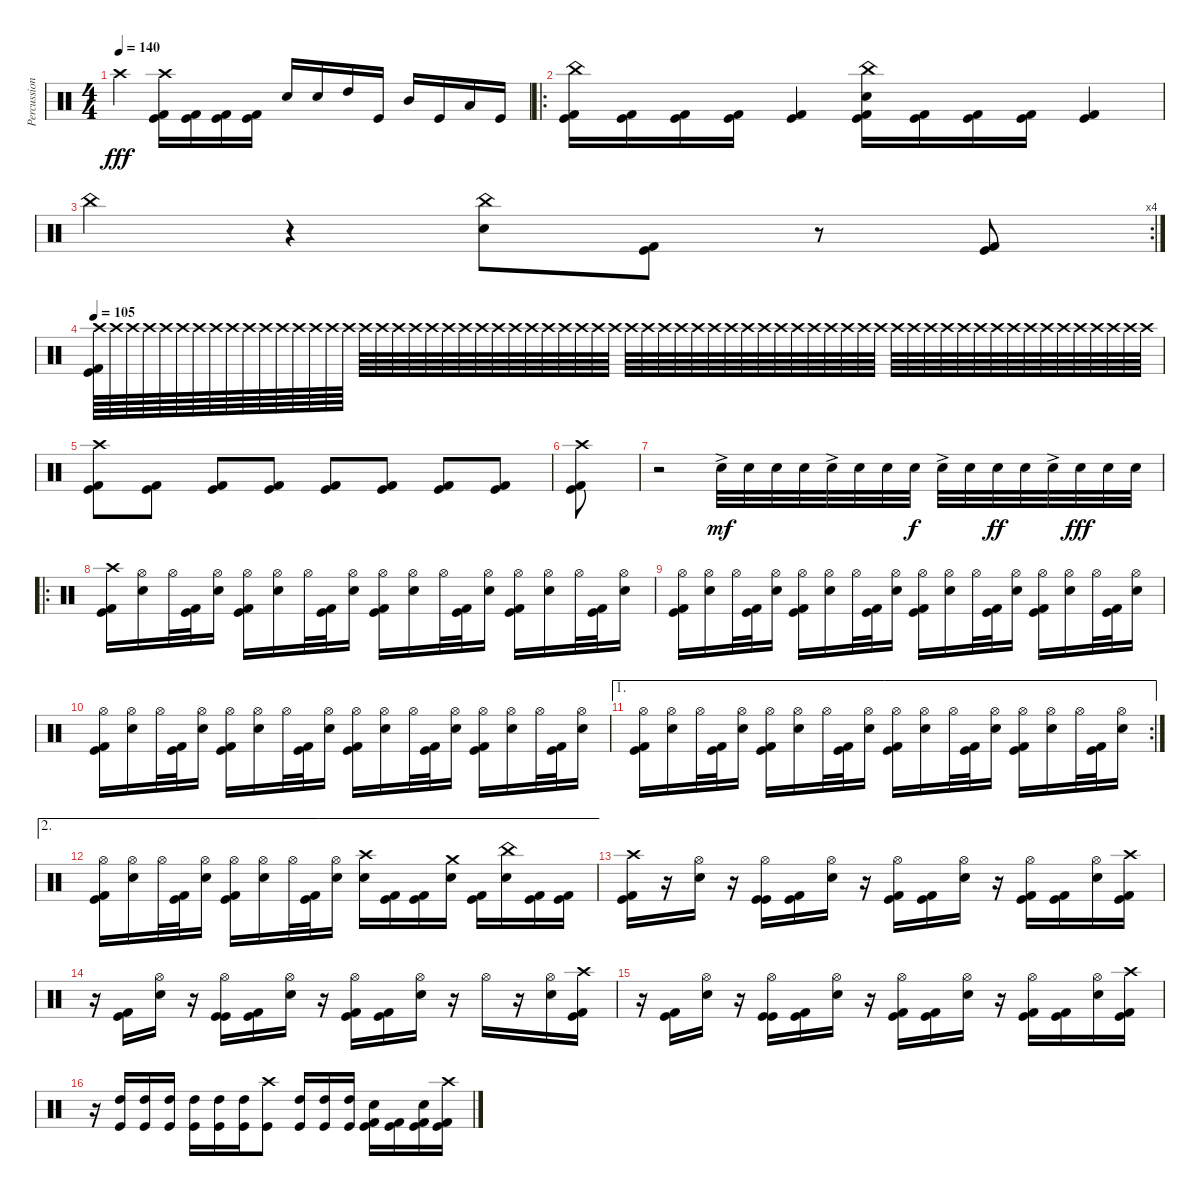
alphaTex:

\track ("Percussion" "Percussion") {instrument percussion}
\staff {score}
\articulation defaults
\ts (4 4)
\tempo 140
\clef neutral
\ks c "Crash high (hit)".4{dy fff}
("Crash high (hit)" "Kick (hit) 2" "Kick (hit)").16 ("Kick (hit) 2" "Kick (hit)").16 ("Kick (hit) 2" "Kick (hit)").16 ("Kick (hit) 2" "Kick (hit)").16 "Electric Snare (hit)".16 "Electric Snare (hit)".16 "High Tom (hit)".16 "Kick (hit)".16 "Mid Tom (hit)".16 "Kick (hit)".16 "Low Tom (hit)".16 "Kick (hit)".16 |
\ro
("China (hit)" "Kick (hit)" "Kick (hit) 2").16 ("Kick (hit)" "Kick (hit) 2").16 ("Kick (hit)" "Kick (hit) 2").16 ("Kick (hit)" "Kick (hit) 2").16 ("Kick (hit)" "Kick (hit) 2").4 ("China (hit)" "Electric Snare (hit)" "Kick (hit)" "Kick (hit) 2").16 ("Kick (hit)" "Kick (hit) 2").16 ("Kick (hit)" "Kick (hit) 2").16 ("Kick (hit)" "Kick (hit) 2").16 ("Kick (hit)" "Kick (hit) 2").4 |
\rc 4 "China (hit)".4
r.4 ("China (hit)" "Electric Snare (hit)").8 ("Kick (hit) 2" "Kick (hit)").8 r.8 ("Kick (hit) 2" "Kick (hit)").8 |
\tempo 105
("Crash high (hit)" "Kick (hit) 2" "Kick (hit)").64 "Crash high (hit)".64 "Crash high (hit)".64 "Crash high (hit)".64 "Crash high (hit)".64 "Crash high (hit)".64 "Crash high (hit)".64 "Crash high (hit)".64 "Crash high (hit)".64 "Crash high (hit)".64 "Crash high (hit)".64 "Crash high (hit)".64 "Crash high (hit)".64 "Crash high (hit)".64 "Crash high (hit)".64 "Crash high (hit)".64 "Crash high (hit)".64 "Crash high (hit)".64 "Crash high (hit)".64 "Crash high (hit)".64 "Crash high (hit)".64 "Crash high (hit)".64 "Crash high (hit)".64 "Crash high (hit)".64 "Crash high (hit)".64 "Crash high (hit)".64 "Crash high (hit)".64 "Crash high (hit)".64 "Crash high (hit)".64 "Crash high (hit)".64 "Crash high (hit)".64 "Crash high (hit)".64 "Crash high (hit)".64 "Crash high (hit)".64 "Crash high (hit)".64 "Crash high (hit)".64 "Crash high (hit)".64 "Crash high (hit)".64 "Crash high (hit)".64 "Crash high (hit)".64 "Crash high (hit)".64 "Crash high (hit)".64 "Crash high (hit)".64 "Crash high (hit)".64 "Crash high (hit)".64 "Crash high (hit)".64 "Crash high (hit)".64 "Crash high (hit)".64 "Crash high (hit)".64 "Crash high (hit)".64 "Crash high (hit)".64 "Crash high (hit)".64 "Crash high (hit)".64 "Crash high (hit)".64 "Crash high (hit)".64 "Crash high (hit)".64 "Crash high (hit)".64 "Crash high (hit)".64 "Crash high (hit)".64 "Crash high (hit)".64 "Crash high (hit)".64 "Crash high (hit)".64 "Crash high (hit)".64 "Crash high (hit)".64 |
("Crash high (hit)" "Kick (hit)" "Kick (hit) 2").8 ("Kick (hit)" "Kick (hit) 2").8 ("Kick (hit)" "Kick (hit) 2").8 ("Kick (hit)" "Kick (hit) 2").8 ("Kick (hit)" "Kick (hit) 2").8 ("Kick (hit)" "Kick (hit) 2").8 ("Kick (hit)" "Kick (hit) 2").8 ("Kick (hit)" "Kick (hit) 2").8 |
("Crash high (hit)" "Kick (hit) 2" "Kick (hit)").8 |
r.2 "Electric Snare (hit)"{ac}.32{dy mf} "Electric Snare (hit)".32 "Electric Snare (hit)".32 "Electric Snare (hit)".32 "Electric Snare (hit)"{ac}.32 "Electric Snare (hit)".32 "Electric Snare (hit)".32 "Electric Snare (hit)".32{dy f} "Electric Snare (hit)"{ac}.32 "Electric Snare (hit)".32 "Electric Snare (hit)".32{dy ff} "Electric Snare (hit)".32 "Electric Snare (hit)"{ac}.32 "Electric Snare (hit)".32{dy fff} "Electric Snare (hit)".32 "Electric Snare (hit)".32 |
\ro
("Crash high (hit)" "Kick (hit)" "Kick (hit) 2").16 ("Electric Snare (hit)" "Hi-Hat (open)").16 "Hi-Hat (open)".32 ("Kick (hit)" "Kick (hit) 2").32 ("Electric Snare (hit)" "Hi-Hat (open)").16 ("Hi-Hat (open)" "Kick (hit)" "Kick (hit) 2").16 ("Electric Snare (hit)" "Hi-Hat (open)").16 "Hi-Hat (open)".32 ("Kick (hit)" "Kick (hit) 2").32 ("Electric Snare (hit)" "Hi-Hat (open)").16 ("Hi-Hat (open)" "Kick (hit)" "Kick (hit) 2").16 ("Electric Snare (hit)" "Hi-Hat (open)").16 "Hi-Hat (open)".32 ("Kick (hit)" "Kick (hit) 2").32 ("Electric Snare (hit)" "Hi-Hat (open)").16 ("Hi-Hat (open)" "Kick (hit)" "Kick (hit) 2").16 ("Electric Snare (hit)" "Hi-Hat (open)").16 "Hi-Hat (open)".32 ("Kick (hit)" "Kick (hit) 2").32 ("Electric Snare (hit)" "Hi-Hat (open)").16 |
("Hi-Hat (open)" "Kick (hit)" "Kick (hit) 2").16 ("Electric Snare (hit)" "Hi-Hat (open)").16 "Hi-Hat (open)".32 ("Kick (hit)" "Kick (hit) 2").32 ("Electric Snare (hit)" "Hi-Hat (open)").16 ("Hi-Hat (open)" "Kick (hit)" "Kick (hit) 2").16 ("Electric Snare (hit)" "Hi-Hat (open)").16 "Hi-Hat (open)".32 ("Kick (hit)" "Kick (hit) 2").32 ("Electric Snare (hit)" "Hi-Hat (open)").16 ("Hi-Hat (open)" "Kick (hit)" "Kick (hit) 2").16 ("Electric Snare (hit)" "Hi-Hat (open)").16 "Hi-Hat (open)".32 ("Kick (hit)" "Kick (hit) 2").32 ("Electric Snare (hit)" "Hi-Hat (open)").16 ("Hi-Hat (open)" "Kick (hit)" "Kick (hit) 2").16 ("Electric Snare (hit)" "Hi-Hat (open)").16 "Hi-Hat (open)".32 ("Kick (hit)" "Kick (hit) 2").32 ("Electric Snare (hit)" "Hi-Hat (open)").16 |
("Hi-Hat (open)" "Kick (hit)" "Kick (hit) 2").16 ("Electric Snare (hit)" "Hi-Hat (open)").16 "Hi-Hat (open)".32 ("Kick (hit)" "Kick (hit) 2").32 ("Electric Snare (hit)" "Hi-Hat (open)").16 ("Hi-Hat (open)" "Kick (hit)" "Kick (hit) 2").16 ("Electric Snare (hit)" "Hi-Hat (open)").16 "Hi-Hat (open)".32 ("Kick (hit)" "Kick (hit) 2").32 ("Electric Snare (hit)" "Hi-Hat (open)").16 ("Hi-Hat (open)" "Kick (hit)" "Kick (hit) 2").16 ("Electric Snare (hit)" "Hi-Hat (open)").16 "Hi-Hat (open)".32 ("Kick (hit)" "Kick (hit) 2").32 ("Electric Snare (hit)" "Hi-Hat (open)").16 ("Hi-Hat (open)" "Kick (hit)" "Kick (hit) 2").16 ("Electric Snare (hit)" "Hi-Hat (open)").16 "Hi-Hat (open)".32 ("Kick (hit)" "Kick (hit) 2").32 ("Electric Snare (hit)" "Hi-Hat (open)").16 |
\ae 1
\rc 2
("Hi-Hat (open)" "Kick (hit)" "Kick (hit) 2").16 ("Electric Snare (hit)" "Hi-Hat (open)").16 "Hi-Hat (open)".32 ("Kick (hit)" "Kick (hit) 2").32 ("Electric Snare (hit)" "Hi-Hat (open)").16 ("Hi-Hat (open)" "Kick (hit)" "Kick (hit) 2").16 ("Electric Snare (hit)" "Hi-Hat (open)").16 "Hi-Hat (open)".32 ("Kick (hit)" "Kick (hit) 2").32 ("Electric Snare (hit)" "Hi-Hat (open)").16 ("Hi-Hat (open)" "Kick (hit)" "Kick (hit) 2").16 ("Electric Snare (hit)" "Hi-Hat (open)").16 "Hi-Hat (open)".32 ("Kick (hit)" "Kick (hit) 2").32 ("Electric Snare (hit)" "Hi-Hat (open)").16 ("Hi-Hat (open)" "Kick (hit)" "Kick (hit) 2").16 ("Electric Snare (hit)" "Hi-Hat (open)").16 "Hi-Hat (open)".32 ("Kick (hit)" "Kick (hit) 2").32 ("Electric Snare (hit)" "Hi-Hat (open)").16 |
\ae 2
("Hi-Hat (open)" "Kick (hit)" "Kick (hit) 2").16 ("Electric Snare (hit)" "Hi-Hat (open)").16 "Hi-Hat (open)".32 ("Kick (hit)" "Kick (hit) 2").32 ("Electric Snare (hit)" "Hi-Hat (open)").16 ("Hi-Hat (open)" "Kick (hit)" "Kick (hit) 2").16 ("Electric Snare (hit)" "Hi-Hat (open)").16 "Hi-Hat (open)".32 ("Kick (hit)" "Kick (hit) 2").32 ("Electric Snare (hit)" "Hi-Hat (open)").16 ("Crash high (hit)" "Electric Snare (hit)").16 ("Kick (hit) 2" "Kick (hit)").16 ("Kick (hit) 2" "Kick (hit)").16 ("Crash medium (hit)" "Electric Snare (hit)").16 ("Kick (hit) 2" "Kick (hit)").16 ("China (hit)" "Electric Snare (hit)").16 ("Kick (hit) 2" "Kick (hit)").16 ("Kick (hit) 2" "Kick (hit)").16 |
("Crash high (hit)" "Kick (hit)" "Kick (hit) 2").16 r.16 ("Hi-Hat (open)" "Electric Snare (hit)").16 r.16 ("Hi-Hat (open)" "Kick (hit)" "Kick (hit)").16 ("Kick (hit) 2" "Kick (hit)").16 ("Hi-Hat (open)" "Electric Snare (hit)").16 r.16 ("Hi-Hat (open)" "Kick (hit)" "Kick (hit) 2").16 ("Kick (hit)" "Kick (hit) 2").16 ("Hi-Hat (open)" "Electric Snare (hit)").16 r.16 ("Hi-Hat (open)" "Kick (hit)" "Kick (hit) 2").16 ("Kick (hit)" "Kick (hit) 2").16 ("Electric Snare (hit)" "Hi-Hat (open)").16 ("Crash high (hit)" "Kick (hit) 2" "Kick (hit)").16 |
r.16 ("Kick (hit) 2" "Kick (hit)").16 ("Hi-Hat (open)" "Electric Snare (hit)").16 r.16 ("Hi-Hat (open)" "Kick (hit)" "Kick (hit)").16 ("Kick (hit) 2" "Kick (hit)").16 ("Hi-Hat (open)" "Electric Snare (hit)").16 r.16 ("Hi-Hat (open)" "Kick (hit)" "Kick (hit) 2").16 ("Kick (hit)" "Kick (hit) 2").16 ("Hi-Hat (open)" "Electric Snare (hit)").16 r.16 "Hi-Hat (open)".16 r.16 ("Electric Snare (hit)" "Hi-Hat (open)").16 ("Crash high (hit)" "Kick (hit) 2" "Kick (hit)").16 |
r.16 ("Kick (hit)" "Kick (hit) 2").16 ("Hi-Hat (open)" "Electric Snare (hit)").16 r.16 ("Hi-Hat (open)" "Kick (hit)" "Kick (hit)").16 ("Kick (hit) 2" "Kick (hit)").16 ("Hi-Hat (open)" "Electric Snare (hit)").16 r.16 ("Hi-Hat (open)" "Kick (hit)" "Kick (hit) 2").16 ("Kick (hit)" "Kick (hit) 2").16 ("Hi-Hat (open)" "Electric Snare (hit)").16 r.16 ("Hi-Hat (open)" "Kick (hit)" "Kick (hit) 2").16 ("Kick (hit)" "Kick (hit) 2").16 ("Electric Snare (hit)" "Hi-Hat (open)").16 ("Crash high (hit)" "Kick (hit) 2" "Kick (hit)").16 |
r.16 ("High Tom (hit)" "Kick (hit)").16 ("High Tom (hit)" "Kick (hit)").16 ("High Tom (hit)" "Kick (hit)").16 ("High Tom (hit)" "Kick (hit)").16 ("High Tom (hit)" "Kick (hit)").16 ("High Tom (hit)" "Kick (hit)").16 ("Crash high (hit)" "Kick (hit)").8 ("High Tom (hit)" "Kick (hit)").16 ("High Tom (hit)" "Kick (hit)").16 ("High Tom (hit)" "Kick (hit)").16 ("Electric Snare (hit)" "Kick (hit)" "Kick (hit) 2").16 ("Kick (hit)" "Kick (hit) 2").16 ("Electric Snare (hit)" "Kick (hit)" "Kick (hit) 2").16 ("Crash high (hit)" "Kick (hit)" "Kick (hit) 2").16
